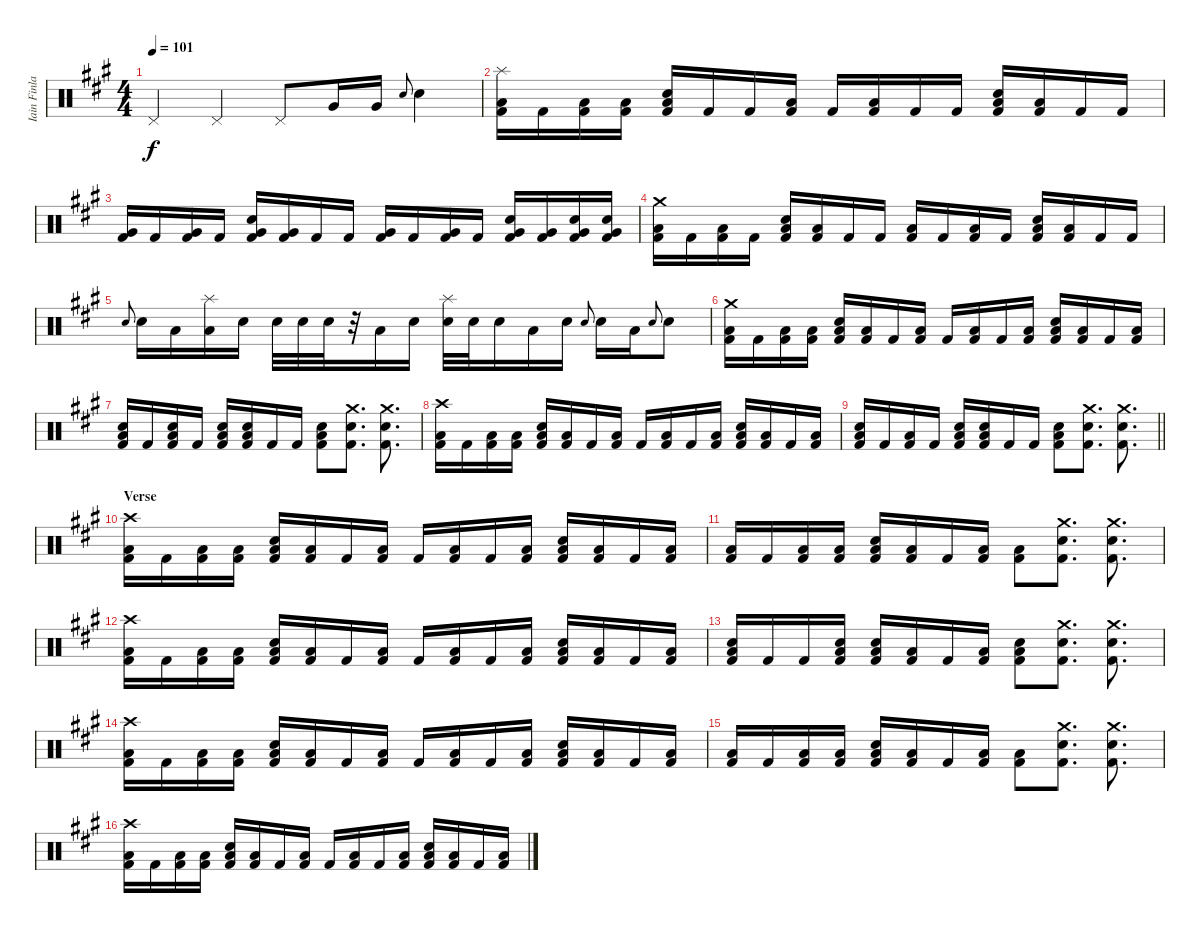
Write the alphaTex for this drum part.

\track ("Iain Finlay" "Iain Finla") {instrument percussion}
\staff {score}
\articulation defaults
\ts (4 4)
\tempo 101
\clef neutral
\ks f#minor "Pedal Hi-Hat (hit)".4{dy f} "Pedal Hi-Hat (hit)".4 "Pedal Hi-Hat (hit)".8 "Very Low Tom (hit)".16 "Very Low Tom (hit)".16 "Snare (hit) 2".8{gr onbeat} "Snare (hit) 2".4
|
("Splash (hit)" "Low Floor Tom (hit)" "Kick (hit) 2").16 "Kick (hit) 2".16 ("Low Floor Tom (hit)" "Kick (hit) 2").16 ("Low Floor Tom (hit)" "Kick (hit) 2").16 ("Snare (hit) 2" "Low Tom (hit)" "Kick (hit) 2").16 "Kick (hit) 2".16 "Kick (hit) 2".16 ("Low Floor Tom (hit)" "Kick (hit) 2").16 "Kick (hit) 2".16 ("Low Floor Tom (hit)" "Kick (hit) 2").16 "Kick (hit) 2".16 "Kick (hit) 2".16 ("Snare (hit) 2" "Low Tom (hit)" "Kick (hit) 2").16 ("Low Tom (hit)" "Kick (hit) 2").16 "Kick (hit) 2".16 "Kick (hit) 2".16 |
("Very Low Tom (hit)" "Kick (hit) 2").16 "Kick (hit) 2".16 ("Very Low Tom (hit)" "Kick (hit) 2").16 "Kick (hit) 2".16 ("Snare (hit) 2" "Very Low Tom (hit)" "Kick (hit) 2").16 ("Very Low Tom (hit)" "Kick (hit) 2").16 "Kick (hit) 2".16 "Kick (hit) 2".16 ("Very Low Tom (hit)" "Kick (hit) 2").16 "Kick (hit) 2".16 ("Very Low Tom (hit)" "Kick (hit) 2").16 "Kick (hit) 2".16 ("Snare (hit) 2" "Very Low Tom (hit)" "Kick (hit) 2").16 ("Very Low Tom (hit)" "Kick (hit) 2").16 ("Snare (hit) 2" "Very Low Tom (hit)" "Kick (hit) 2").16 ("Snare (hit) 2" "Very Low Tom (hit)" "Kick (hit) 2").16 |
("Crash medium (hit)" "Low Floor Tom (hit)" "Kick (hit) 2").16 "Kick (hit) 2".16 ("Low Floor Tom (hit)" "Kick (hit) 2").16 "Kick (hit) 2".16 ("Snare (hit) 2" "Low Tom (hit)" "Kick (hit) 2").16 ("Low Floor Tom (hit)" "Kick (hit) 2").16 "Kick (hit) 2".16 "Kick (hit) 2".16 ("Low Floor Tom (hit)" "Kick (hit) 2").16 "Kick (hit) 2".16 ("Low Floor Tom (hit)" "Kick (hit) 2").16 "Kick (hit) 2".16 ("Snare (hit) 2" "Low Tom (hit)" "Kick (hit) 2").16 ("Low Floor Tom (hit)" "Kick (hit) 2").16 "Kick (hit) 2".16 "Kick (hit) 2".16 |
"Snare (hit) 2".8{gr onbeat} "Snare (hit) 2".16 "Low Floor Tom (hit)".16 ("Splash (hit)" "Low Floor Tom (hit)").16 "Snare (hit) 2".16 "Snare (hit) 2".32 "Snare (hit) 2".32 "Snare (hit) 2".32 r.32 "Low Floor Tom (hit)".16 "Snare (hit) 2".16 ("Splash (hit)" "Snare (hit) 2").32 "Snare (hit) 2".32 "Snare (hit) 2".16 "Low Floor Tom (hit)".16 "Snare (hit) 2".16 "Snare (hit) 2".8{gr onbeat} "Snare (hit) 2".16 "Low Floor Tom (hit)".16 "Snare (hit) 2".8{gr onbeat} "Snare (hit) 2".8 |
("Crash medium (hit)" "Low Floor Tom (hit)" "Kick (hit) 2").16 "Kick (hit) 2".16 ("Low Floor Tom (hit)" "Kick (hit) 2").16 ("Low Floor Tom (hit)" "Kick (hit) 2").16 ("Snare (hit) 2" "Low Tom (hit)" "Kick (hit) 2").16 ("Low Floor Tom (hit)" "Kick (hit) 2").16 "Kick (hit) 2".16 ("Low Floor Tom (hit)" "Kick (hit) 2").16 "Kick (hit) 2".16 ("Low Floor Tom (hit)" "Kick (hit) 2").16 "Kick (hit) 2".16 ("Low Floor Tom (hit)" "Kick (hit) 2").16 ("Snare (hit) 2" "Low Tom (hit)" "Kick (hit) 2").16 ("Low Floor Tom (hit)" "Kick (hit) 2").16 "Kick (hit) 2".16 ("Low Floor Tom (hit)" "Kick (hit) 2").16 |
("Snare (hit) 2" "Low Floor Tom (hit)" "Kick (hit) 2").16 "Kick (hit) 2".16 ("Snare (hit) 2" "Low Floor Tom (hit)" "Kick (hit) 2").16 "Kick (hit) 2".16 ("Snare (hit) 2" "Low Tom (hit)" "Kick (hit) 2").16 ("Snare (hit) 2" "Low Floor Tom (hit)" "Kick (hit) 2").16 "Kick (hit) 2".16 "Kick (hit) 2".16 ("Snare (hit) 2" "Low Tom (hit)" "Kick (hit) 2").8 ("Crash medium (hit)" "Snare (hit) 2" "Kick (hit) 2").8{d} ("Crash medium (hit)" "Snare (hit) 2" "Kick (hit) 2").8{d} |
("Crash high (hit)" "Low Floor Tom (hit)" "Kick (hit) 2").16 "Kick (hit) 2".16 ("Low Floor Tom (hit)" "Kick (hit) 2").16 ("Low Floor Tom (hit)" "Kick (hit) 2").16 ("Snare (hit) 2" "Low Tom (hit)" "Kick (hit) 2").16 ("Low Floor Tom (hit)" "Kick (hit) 2").16 "Kick (hit) 2".16 ("Low Floor Tom (hit)" "Kick (hit) 2").16 "Kick (hit) 2".16 ("Low Floor Tom (hit)" "Kick (hit) 2").16 "Kick (hit) 2".16 ("Low Floor Tom (hit)" "Kick (hit) 2").16 ("Snare (hit) 2" "Low Tom (hit)" "Kick (hit) 2").16 ("Low Floor Tom (hit)" "Kick (hit) 2").16 "Kick (hit) 2".16 ("Low Floor Tom (hit)" "Kick (hit) 2").16 |
\barLineRight lightlight
("Snare (hit) 2" "Low Tom (hit)" "Kick (hit) 2").16 "Kick (hit) 2".16 ("Low Floor Tom (hit)" "Kick (hit) 2").16 "Kick (hit) 2".16 ("Snare (hit) 2" "Low Tom (hit)" "Kick (hit) 2").16 ("Snare (hit) 2" "Low Tom (hit)" "Kick (hit) 2").16 "Kick (hit) 2".16 "Kick (hit) 2".16 ("Snare (hit) 2" "Low Tom (hit)" "Kick (hit) 2").8 ("Crash medium (hit)" "Snare (hit) 2" "Kick (hit) 2").8{d} ("Crash medium (hit)" "Snare (hit) 2" "Kick (hit) 2").8{d} |
\section ("" "Verse")
("Crash high (hit)" "Low Floor Tom (hit)" "Kick (hit) 2").16 "Kick (hit) 2".16 ("Low Floor Tom (hit)" "Kick (hit) 2").16 ("Low Floor Tom (hit)" "Kick (hit) 2").16 ("Snare (hit) 2" "Low Tom (hit)" "Kick (hit) 2").16 ("Low Floor Tom (hit)" "Kick (hit) 2").16 "Kick (hit) 2".16 ("Low Floor Tom (hit)" "Kick (hit) 2").16 "Kick (hit) 2".16 ("Low Floor Tom (hit)" "Kick (hit) 2").16 "Kick (hit) 2".16 ("Low Floor Tom (hit)" "Kick (hit) 2").16 ("Snare (hit) 2" "Low Tom (hit)" "Kick (hit) 2").16 ("Low Floor Tom (hit)" "Kick (hit) 2").16 "Kick (hit) 2".16 ("Low Floor Tom (hit)" "Kick (hit) 2").16 |
("Low Floor Tom (hit)" "Kick (hit) 2").16 "Kick (hit) 2".16 ("Low Floor Tom (hit)" "Kick (hit) 2").16 ("Low Floor Tom (hit)" "Kick (hit) 2").16 ("Snare (hit) 2" "Low Tom (hit)" "Kick (hit) 2").16 ("Low Floor Tom (hit)" "Kick (hit) 2").16 "Kick (hit) 2".16 ("Low Floor Tom (hit)" "Kick (hit) 2").16 ("Low Tom (hit)" "Kick (hit) 2").8 ("Crash medium (hit)" "Snare (hit) 2" "Kick (hit) 2").8{d} ("Crash medium (hit)" "Snare (hit) 2" "Kick (hit) 2").8{d} |
("Crash high (hit)" "Low Floor Tom (hit)" "Kick (hit) 2").16 "Kick (hit) 2".16 ("Low Floor Tom (hit)" "Kick (hit) 2").16 ("Low Floor Tom (hit)" "Kick (hit) 2").16 ("Snare (hit) 2" "Low Tom (hit)" "Kick (hit) 2").16 ("Low Floor Tom (hit)" "Kick (hit) 2").16 "Kick (hit) 2".16 ("Low Floor Tom (hit)" "Kick (hit) 2").16 "Kick (hit) 2".16 ("Low Floor Tom (hit)" "Kick (hit) 2").16 "Kick (hit) 2".16 ("Low Floor Tom (hit)" "Kick (hit) 2").16 ("Snare (hit) 2" "Low Tom (hit)" "Kick (hit) 2").16 ("Low Floor Tom (hit)" "Kick (hit) 2").16 "Kick (hit) 2".16 ("Low Floor Tom (hit)" "Kick (hit) 2").16 |
("Snare (hit) 2" "Low Floor Tom (hit)" "Kick (hit) 2").16 "Kick (hit) 2".16 "Kick (hit) 2".16 ("Snare (hit) 2" "Low Floor Tom (hit)" "Kick (hit) 2").16 ("Snare (hit) 2" "Low Tom (hit)" "Kick (hit) 2").16 ("Low Floor Tom (hit)" "Kick (hit) 2").16 "Kick (hit) 2".16 ("Low Floor Tom (hit)" "Kick (hit) 2").16 ("Snare (hit) 2" "Low Tom (hit)" "Kick (hit) 2").8 ("Crash medium (hit)" "Snare (hit) 2" "Kick (hit) 2").8{d} ("Crash medium (hit)" "Snare (hit) 2" "Kick (hit) 2").8{d} |
("Crash high (hit)" "Low Floor Tom (hit)" "Kick (hit) 2").16 "Kick (hit) 2".16 ("Low Floor Tom (hit)" "Kick (hit) 2").16 ("Low Floor Tom (hit)" "Kick (hit) 2").16 ("Snare (hit) 2" "Low Tom (hit)" "Kick (hit) 2").16 ("Low Floor Tom (hit)" "Kick (hit) 2").16 "Kick (hit) 2".16 ("Low Floor Tom (hit)" "Kick (hit) 2").16 "Kick (hit) 2".16 ("Low Floor Tom (hit)" "Kick (hit) 2").16 "Kick (hit) 2".16 ("Low Floor Tom (hit)" "Kick (hit) 2").16 ("Snare (hit) 2" "Low Tom (hit)" "Kick (hit) 2").16 ("Low Floor Tom (hit)" "Kick (hit) 2").16 "Kick (hit) 2".16 ("Low Floor Tom (hit)" "Kick (hit) 2").16 |
("Low Floor Tom (hit)" "Kick (hit) 2").16 "Kick (hit) 2".16 ("Low Floor Tom (hit)" "Kick (hit) 2").16 ("Low Floor Tom (hit)" "Kick (hit) 2").16 ("Snare (hit) 2" "Low Tom (hit)" "Kick (hit) 2").16 ("Low Floor Tom (hit)" "Kick (hit) 2").16 "Kick (hit) 2".16 ("Low Floor Tom (hit)" "Kick (hit) 2").16 ("Low Tom (hit)" "Kick (hit) 2").8 ("Crash medium (hit)" "Snare (hit) 2" "Kick (hit) 2").8{d} ("Crash medium (hit)" "Snare (hit) 2" "Kick (hit) 2").8{d} |
("Crash high (hit)" "Low Floor Tom (hit)" "Kick (hit) 2").16 "Kick (hit) 2".16 ("Low Floor Tom (hit)" "Kick (hit) 2").16 ("Low Floor Tom (hit)" "Kick (hit) 2").16 ("Snare (hit) 2" "Low Tom (hit)" "Kick (hit) 2").16 ("Low Floor Tom (hit)" "Kick (hit) 2").16 "Kick (hit) 2".16 ("Low Floor Tom (hit)" "Kick (hit) 2").16 "Kick (hit) 2".16 ("Low Floor Tom (hit)" "Kick (hit) 2").16 "Kick (hit) 2".16 ("Low Floor Tom (hit)" "Kick (hit) 2").16 ("Snare (hit) 2" "Low Tom (hit)" "Kick (hit) 2").16 ("Low Floor Tom (hit)" "Kick (hit) 2").16 "Kick (hit) 2".16 ("Low Floor Tom (hit)" "Kick (hit) 2").16
